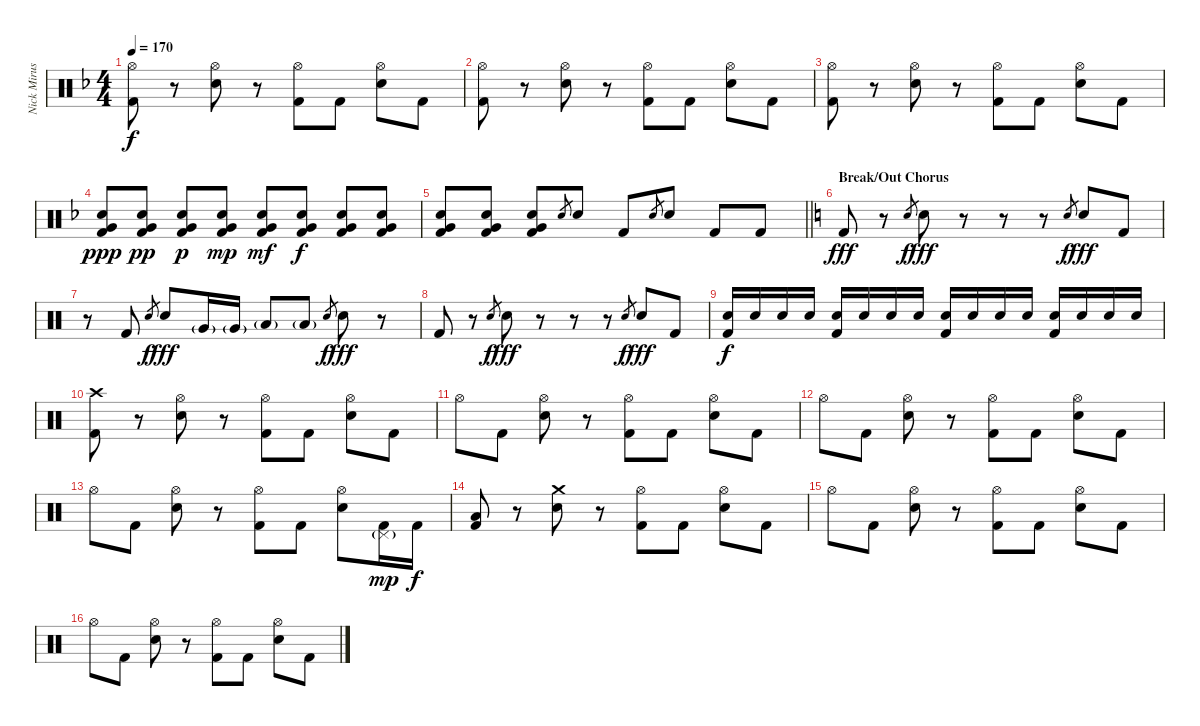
\track ("Nick Mirusso - Drums" "Nick Mirus") {instrument percussion}
\staff {score}
\articulation defaults
\ts (4 4)
\tempo 170
\clef neutral
\ks f
("Hi-Hat (open)" "Kick (hit) 2").8{dy f} r.8 ("Hi-Hat (open)" "Electric Snare (hit)").8 r.8 ("Hi-Hat (open)" "Kick (hit) 2").8 "Kick (hit) 2".8 ("Hi-Hat (open)" "Electric Snare (hit)").8 "Kick (hit) 2".8 |
("Hi-Hat (open)" "Kick (hit) 2").8 r.8 ("Hi-Hat (open)" "Electric Snare (hit)").8 r.8 ("Hi-Hat (open)" "Kick (hit) 2").8 "Kick (hit) 2".8 ("Hi-Hat (open)" "Electric Snare (hit)").8 "Kick (hit) 2".8 |
("Hi-Hat (open)" "Kick (hit) 2").8 r.8 ("Hi-Hat (open)" "Electric Snare (hit)").8 r.8 ("Hi-Hat (open)" "Kick (hit) 2").8 "Kick (hit) 2".8 ("Hi-Hat (open)" "Electric Snare (hit)").8 "Kick (hit) 2".8 |
("Very Low Tom (hit)" "Electric Snare (hit)" "Kick (hit) 2").8{dy ppp} ("Very Low Tom (hit)" "Electric Snare (hit)" "Kick (hit) 2").8{dy pp} ("Very Low Tom (hit)" "Electric Snare (hit)" "Kick (hit) 2").8{dy p} ("Very Low Tom (hit)" "Electric Snare (hit)" "Kick (hit) 2").8{dy mp} ("Very Low Tom (hit)" "Electric Snare (hit)" "Kick (hit) 2").8{dy mf} ("Very Low Tom (hit)" "Electric Snare (hit)" "Kick (hit) 2").8{dy f} ("Very Low Tom (hit)" "Electric Snare (hit)" "Kick (hit) 2").8 ("Very Low Tom (hit)" "Electric Snare (hit)" "Kick (hit) 2").8 |
\barLineRight lightlight
("Very Low Tom (hit)" "Electric Snare (hit)" "Kick (hit) 2").8 ("Very Low Tom (hit)" "Electric Snare (hit)" "Kick (hit) 2").8 ("Very Low Tom (hit)" "Electric Snare (hit)" "Kick (hit) 2").8 "Electric Snare (hit)".8{gr} "Electric Snare (hit)".8 "Kick (hit) 2".8 "Electric Snare (hit)".8{gr} "Electric Snare (hit)".8 "Kick (hit) 2".8 "Kick (hit) 2".8 |
\section ("" "Break/Out Chorus")
\ks c "Kick (hit) 2".8{dy fff}
r.8 "Electric Snare (hit)".8{gr dy f} "Electric Snare (hit)".8{dy fff} r.8 r.8 r.8 "Electric Snare (hit)".8{gr dy f} "Electric Snare (hit)".8{dy fff} "Kick (hit) 2".8 |
r.8 "Kick (hit) 2".8 "Electric Snare (hit)".8{gr dy f} "Electric Snare (hit)".8{dy fff} "Very Low Tom (hit)"{g}.16 "Very Low Tom (hit)"{g}.16 "Low Floor Tom (hit)"{g}.8 "Low Floor Tom (hit)"{g}.8 "Electric Snare (hit)".8{gr dy f} "Electric Snare (hit)".8{dy fff} r.8 |
"Kick (hit) 2".8 r.8 "Electric Snare (hit)".8{gr dy f} "Electric Snare (hit)".8{dy fff} r.8 r.8 r.8 "Electric Snare (hit)".8{gr dy f} "Electric Snare (hit)".8{dy fff} "Kick (hit) 2".8 |
("Electric Snare (hit)" "Kick (hit) 2").16{dy f} "Electric Snare (hit)".16 "Electric Snare (hit)".16 "Electric Snare (hit)".16 ("Electric Snare (hit)" "Kick (hit) 2").16 "Electric Snare (hit)".16 "Electric Snare (hit)".16 "Electric Snare (hit)".16 ("Electric Snare (hit)" "Kick (hit) 2").16 "Electric Snare (hit)".16 "Electric Snare (hit)".16 "Electric Snare (hit)".16 ("Electric Snare (hit)" "Kick (hit) 2").16 "Electric Snare (hit)".16 "Electric Snare (hit)".16 "Electric Snare (hit)".16 |
("Crash high (hit)" "Kick (hit) 2").8 r.8 ("Hi-Hat (open)" "Electric Snare (hit)").8 r.8 ("Hi-Hat (open)" "Kick (hit) 2").8 "Kick (hit) 2".8 ("Hi-Hat (open)" "Electric Snare (hit)").8 "Kick (hit) 2".8 |
"Hi-Hat (open)".8 "Kick (hit) 2".8 ("Hi-Hat (open)" "Electric Snare (hit)").8 r.8 ("Hi-Hat (open)" "Kick (hit) 2").8 "Kick (hit) 2".8 ("Hi-Hat (open)" "Electric Snare (hit)").8 "Kick (hit) 2".8 |
"Hi-Hat (open)".8 "Kick (hit) 2".8 ("Hi-Hat (open)" "Electric Snare (hit)").8 r.8 ("Hi-Hat (open)" "Kick (hit) 2").8 "Kick (hit) 2".8 ("Hi-Hat (open)" "Electric Snare (hit)").8 "Kick (hit) 2".8 |
"Hi-Hat (open)".8 "Kick (hit) 2".8 ("Hi-Hat (open)" "Electric Snare (hit)").8 r.8 ("Hi-Hat (open)" "Kick (hit) 2").8 "Kick (hit) 2".8 ("Hi-Hat (open)" "Electric Snare (hit)").8 ("Pedal Hi-Hat (hit)"{g} "Kick (hit) 2").16{dy mp} "Kick (hit) 2".16{dy f} |
("Low Floor Tom (hit)" "Kick (hit) 2").8 r.8 ("Crash medium (hit)" "Electric Snare (hit)").8 r.8 ("Hi-Hat (open)" "Kick (hit) 2").8 "Kick (hit) 2".8 ("Hi-Hat (open)" "Electric Snare (hit)").8 "Kick (hit) 2".8 |
"Hi-Hat (open)".8 "Kick (hit) 2".8 ("Hi-Hat (open)" "Electric Snare (hit)").8 r.8 ("Hi-Hat (open)" "Kick (hit) 2").8 "Kick (hit) 2".8 ("Hi-Hat (open)" "Electric Snare (hit)").8 "Kick (hit) 2".8 |
"Hi-Hat (open)".8 "Kick (hit) 2".8 ("Hi-Hat (open)" "Electric Snare (hit)").8 r.8 ("Hi-Hat (open)" "Kick (hit) 2").8 "Kick (hit) 2".8 ("Hi-Hat (open)" "Electric Snare (hit)").8 "Kick (hit) 2".8
